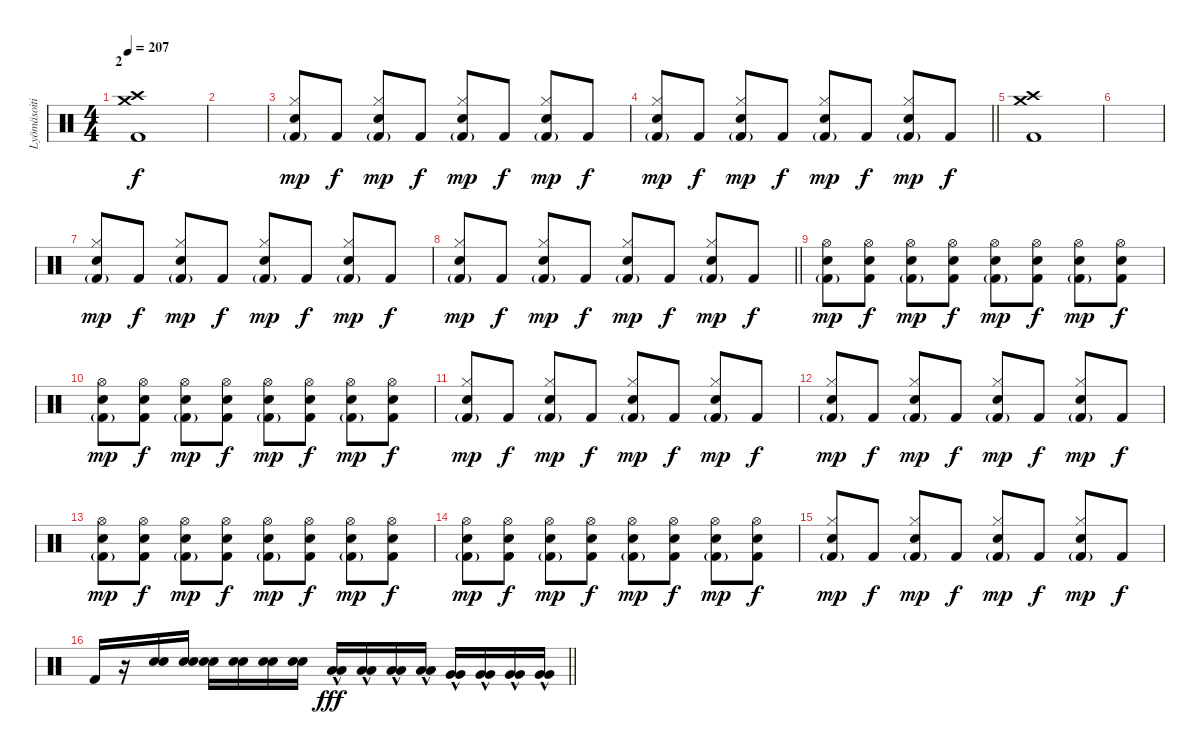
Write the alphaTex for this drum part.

\track ("Lyömäsoitin" "Lyömäsoiti") {instrument percussion}
\staff {score}
\articulation defaults
\ts (4 4)
\section ("" "2")
\tempo 207
\clef neutral
\ks c
("Crash high (hit)" "Crash medium (hit)" "Kick (hit) 2").1{dy f} |
|
("Hi-Hat (closed)" "Snare (hit) 2" "Kick (hit) 2"{g}).8{dy mp} "Kick (hit) 2".8{dy f} ("Hi-Hat (closed)" "Snare (hit) 2" "Kick (hit) 2"{g}).8{dy mp} "Kick (hit) 2".8{dy f} ("Hi-Hat (closed)" "Snare (hit) 2" "Kick (hit) 2"{g}).8{dy mp} "Kick (hit) 2".8{dy f} ("Hi-Hat (closed)" "Snare (hit) 2" "Kick (hit) 2"{g}).8{dy mp} "Kick (hit) 2".8{dy f} |
\barLineRight lightlight
("Hi-Hat (closed)" "Snare (hit) 2" "Kick (hit) 2"{g}).8{dy mp} "Kick (hit) 2".8{dy f} ("Hi-Hat (closed)" "Snare (hit) 2" "Kick (hit) 2"{g}).8{dy mp} "Kick (hit) 2".8{dy f} ("Hi-Hat (closed)" "Snare (hit) 2" "Kick (hit) 2"{g}).8{dy mp} "Kick (hit) 2".8{dy f} ("Hi-Hat (closed)" "Snare (hit) 2" "Kick (hit) 2"{g}).8{dy mp} "Kick (hit) 2".8{dy f} |
("Crash high (hit)" "Crash medium (hit)" "Kick (hit) 2").1 |
|
("Hi-Hat (closed)" "Snare (hit) 2" "Kick (hit) 2"{g}).8{dy mp} "Kick (hit) 2".8{dy f} ("Hi-Hat (closed)" "Snare (hit) 2" "Kick (hit) 2"{g}).8{dy mp} "Kick (hit) 2".8{dy f} ("Hi-Hat (closed)" "Snare (hit) 2" "Kick (hit) 2"{g}).8{dy mp} "Kick (hit) 2".8{dy f} ("Hi-Hat (closed)" "Snare (hit) 2" "Kick (hit) 2"{g}).8{dy mp} "Kick (hit) 2".8{dy f} |
\barLineRight lightlight
("Hi-Hat (closed)" "Snare (hit) 2" "Kick (hit) 2"{g}).8{dy mp} "Kick (hit) 2".8{dy f} ("Hi-Hat (closed)" "Snare (hit) 2" "Kick (hit) 2"{g}).8{dy mp} "Kick (hit) 2".8{dy f} ("Hi-Hat (closed)" "Snare (hit) 2" "Kick (hit) 2"{g}).8{dy mp} "Kick (hit) 2".8{dy f} ("Hi-Hat (closed)" "Snare (hit) 2" "Kick (hit) 2"{g}).8{dy mp} "Kick (hit) 2".8{dy f} |
("Hi-Hat (open)" "Snare (hit) 2" "Kick (hit) 2"{g}).8{dy mp} ("Hi-Hat (open)" "Snare (hit) 2" "Kick (hit) 2").8{dy f} ("Hi-Hat (open)" "Snare (hit) 2" "Kick (hit) 2"{g}).8{dy mp} ("Hi-Hat (open)" "Snare (hit) 2" "Kick (hit) 2").8{dy f} ("Hi-Hat (open)" "Snare (hit) 2" "Kick (hit) 2"{g}).8{dy mp} ("Hi-Hat (open)" "Snare (hit) 2" "Kick (hit) 2").8{dy f} ("Hi-Hat (open)" "Snare (hit) 2" "Kick (hit) 2"{g}).8{dy mp} ("Hi-Hat (open)" "Snare (hit) 2" "Kick (hit) 2").8{dy f} |
("Hi-Hat (open)" "Snare (hit) 2" "Kick (hit) 2"{g}).8{dy mp} ("Hi-Hat (open)" "Snare (hit) 2" "Kick (hit) 2").8{dy f} ("Hi-Hat (open)" "Snare (hit) 2" "Kick (hit) 2"{g}).8{dy mp} ("Hi-Hat (open)" "Snare (hit) 2" "Kick (hit) 2").8{dy f} ("Hi-Hat (open)" "Snare (hit) 2" "Kick (hit) 2"{g}).8{dy mp} ("Hi-Hat (open)" "Snare (hit) 2" "Kick (hit) 2").8{dy f} ("Hi-Hat (open)" "Snare (hit) 2" "Kick (hit) 2"{g}).8{dy mp} ("Hi-Hat (open)" "Snare (hit) 2" "Kick (hit) 2").8{dy f} |
("Hi-Hat (closed)" "Snare (hit) 2" "Kick (hit) 2"{g}).8{dy mp} "Kick (hit) 2".8{dy f} ("Hi-Hat (closed)" "Snare (hit) 2" "Kick (hit) 2"{g}).8{dy mp} "Kick (hit) 2".8{dy f} ("Hi-Hat (closed)" "Snare (hit) 2" "Kick (hit) 2"{g}).8{dy mp} "Kick (hit) 2".8{dy f} ("Hi-Hat (closed)" "Snare (hit) 2" "Kick (hit) 2"{g}).8{dy mp} "Kick (hit) 2".8{dy f} |
("Hi-Hat (closed)" "Snare (hit) 2" "Kick (hit) 2"{g}).8{dy mp} "Kick (hit) 2".8{dy f} ("Hi-Hat (closed)" "Snare (hit) 2" "Kick (hit) 2"{g}).8{dy mp} "Kick (hit) 2".8{dy f} ("Hi-Hat (closed)" "Snare (hit) 2" "Kick (hit) 2"{g}).8{dy mp} "Kick (hit) 2".8{dy f} ("Hi-Hat (closed)" "Snare (hit) 2" "Kick (hit) 2"{g}).8{dy mp} "Kick (hit) 2".8{dy f} |
("Hi-Hat (open)" "Snare (hit) 2" "Kick (hit) 2"{g}).8{dy mp} ("Hi-Hat (open)" "Snare (hit) 2" "Kick (hit) 2").8{dy f} ("Hi-Hat (open)" "Snare (hit) 2" "Kick (hit) 2"{g}).8{dy mp} ("Hi-Hat (open)" "Snare (hit) 2" "Kick (hit) 2").8{dy f} ("Hi-Hat (open)" "Snare (hit) 2" "Kick (hit) 2"{g}).8{dy mp} ("Hi-Hat (open)" "Snare (hit) 2" "Kick (hit) 2").8{dy f} ("Hi-Hat (open)" "Snare (hit) 2" "Kick (hit) 2"{g}).8{dy mp} ("Hi-Hat (open)" "Snare (hit) 2" "Kick (hit) 2").8{dy f} |
("Hi-Hat (open)" "Snare (hit) 2" "Kick (hit) 2"{g}).8{dy mp} ("Hi-Hat (open)" "Snare (hit) 2" "Kick (hit) 2").8{dy f} ("Hi-Hat (open)" "Snare (hit) 2" "Kick (hit) 2"{g}).8{dy mp} ("Hi-Hat (open)" "Snare (hit) 2" "Kick (hit) 2").8{dy f} ("Hi-Hat (open)" "Snare (hit) 2" "Kick (hit) 2"{g}).8{dy mp} ("Hi-Hat (open)" "Snare (hit) 2" "Kick (hit) 2").8{dy f} ("Hi-Hat (open)" "Snare (hit) 2" "Kick (hit) 2"{g}).8{dy mp} ("Hi-Hat (open)" "Snare (hit) 2" "Kick (hit) 2").8{dy f} |
("Hi-Hat (closed)" "Snare (hit) 2" "Kick (hit) 2"{g}).8{dy mp} "Kick (hit) 2".8{dy f} ("Hi-Hat (closed)" "Snare (hit) 2" "Kick (hit) 2"{g}).8{dy mp} "Kick (hit) 2".8{dy f} ("Hi-Hat (closed)" "Snare (hit) 2" "Kick (hit) 2"{g}).8{dy mp} "Kick (hit) 2".8{dy f} ("Hi-Hat (closed)" "Snare (hit) 2" "Kick (hit) 2"{g}).8{dy mp} "Kick (hit) 2".8{dy f} |
\barLineRight lightlight "Kick (hit) 2".16
r.16 ("Snare (hit) 2" "Electric Snare (hit)").16 ("Snare (hit) 2" "Electric Snare (hit)").16 ("Snare (hit) 2" "Electric Snare (hit)").16 ("Snare (hit) 2" "Electric Snare (hit)").16 ("Snare (hit) 2" "Electric Snare (hit)").16 ("Snare (hit) 2" "Electric Snare (hit)").16 ("Low Floor Tom (hit)"{hac} "Low Floor Tom (hit)"{hac}).16{dy fff} ("Low Floor Tom (hit)"{hac} "Low Floor Tom (hit)").16 ("Low Floor Tom (hit)"{hac} "Low Floor Tom (hit)"{hac}).16 ("Low Floor Tom (hit)"{hac} "Low Floor Tom (hit)"{hac}).16 ("Very Low Tom (hit)"{hac} "Very Low Tom (hit)").16 ("Very Low Tom (hit)"{hac} "Very Low Tom (hit)"{hac}).16 ("Very Low Tom (hit)"{hac} "Very Low Tom (hit)"{hac}).16 ("Very Low Tom (hit)"{hac} "Very Low Tom (hit)"{hac}).16
